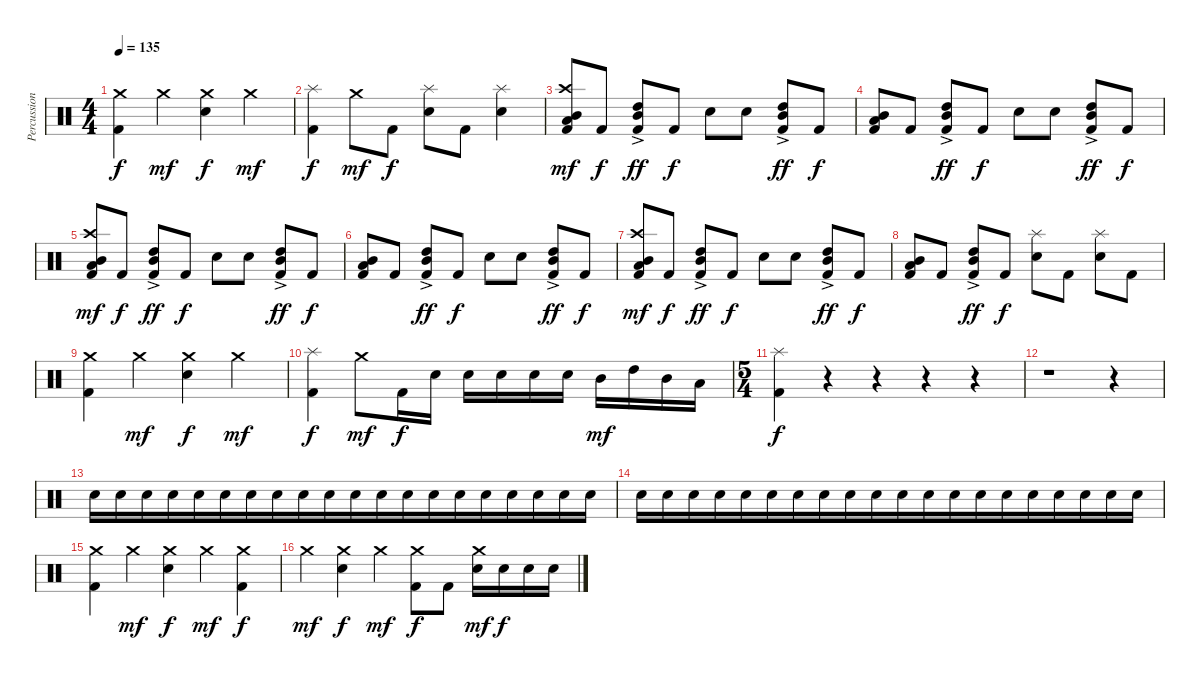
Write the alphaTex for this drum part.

\track ("Percussion" "Percussion") {instrument percussion}
\staff {score}
\articulation defaults
\ts (4 4)
\tempo 135
\clef neutral
\ks c
("Crash medium (hit)" "Kick (hit) 2").4{dy f} "Crash medium (hit)".4{dy mf} ("Crash medium (hit)" "Snare (hit) 2").4{dy f} "Crash medium (hit)".4{dy mf} |
("Splash (hit)" "Kick (hit) 2").4{dy f} "Crash medium (hit)".8{dy mf} "Kick (hit) 2".8{dy f} ("Splash (hit)" "Snare (hit) 2").8 "Kick (hit) 2".8 ("Splash (hit)" "Snare (hit) 2").4 |
("Crash high (hit)" "Mid Tom (hit)" "Low Tom (hit)" "Kick (hit) 2").8{dy mf} "Kick (hit) 2".8{dy f} ("High Tom (hit)"{ac} "Mid Tom (hit)"{ac} "Kick (hit) 2").8{dy ff} "Kick (hit) 2".8{dy f} "Snare (hit) 2".8 "Snare (hit) 2".8 ("High Tom (hit)"{ac} "Mid Tom (hit)"{ac} "Kick (hit) 2").8{dy ff} "Kick (hit) 2".8{dy f} |
("Mid Tom (hit)" "Low Tom (hit)" "Kick (hit) 2").8 "Kick (hit) 2".8 ("High Tom (hit)"{ac} "Mid Tom (hit)"{ac} "Kick (hit) 2").8{dy ff} "Kick (hit) 2".8{dy f} "Snare (hit) 2".8 "Snare (hit) 2".8 ("High Tom (hit)"{ac} "Mid Tom (hit)"{ac} "Kick (hit) 2").8{dy ff} "Kick (hit) 2".8{dy f} |
("Crash high (hit)" "Mid Tom (hit)" "Low Tom (hit)" "Kick (hit) 2").8{dy mf} "Kick (hit) 2".8{dy f} ("High Tom (hit)"{ac} "Mid Tom (hit)"{ac} "Kick (hit) 2").8{dy ff} "Kick (hit) 2".8{dy f} "Snare (hit) 2".8 "Snare (hit) 2".8 ("High Tom (hit)"{ac} "Mid Tom (hit)"{ac} "Kick (hit) 2").8{dy ff} "Kick (hit) 2".8{dy f} |
("Mid Tom (hit)" "Low Tom (hit)" "Kick (hit) 2").8 "Kick (hit) 2".8 ("High Tom (hit)"{ac} "Mid Tom (hit)"{ac} "Kick (hit) 2").8{dy ff} "Kick (hit) 2".8{dy f} "Snare (hit) 2".8 "Snare (hit) 2".8 ("High Tom (hit)"{ac} "Mid Tom (hit)"{ac} "Kick (hit) 2").8{dy ff} "Kick (hit) 2".8{dy f} |
("Crash high (hit)" "Mid Tom (hit)" "Low Tom (hit)" "Kick (hit) 2").8{dy mf} "Kick (hit) 2".8{dy f} ("High Tom (hit)"{ac} "Mid Tom (hit)"{ac} "Kick (hit) 2").8{dy ff} "Kick (hit) 2".8{dy f} "Snare (hit) 2".8 "Snare (hit) 2".8 ("High Tom (hit)"{ac} "Mid Tom (hit)"{ac} "Kick (hit) 2").8{dy ff} "Kick (hit) 2".8{dy f} |
("Mid Tom (hit)" "Low Tom (hit)" "Kick (hit) 2").8 "Kick (hit) 2".8 ("High Tom (hit)"{ac} "Mid Tom (hit)"{ac} "Kick (hit) 2").8{dy ff} "Kick (hit) 2".8{dy f} ("Splash (hit)" "Snare (hit) 2").8 "Kick (hit) 2".8 ("Splash (hit)" "Snare (hit) 2").8 "Kick (hit) 2".8 |
("Crash medium (hit)" "Kick (hit) 2").4 "Crash medium (hit)".4{dy mf} ("Crash medium (hit)" "Snare (hit) 2").4{dy f} "Crash medium (hit)".4{dy mf} |
("Splash (hit)" "Kick (hit) 2").4{dy f} "Crash medium (hit)".8{dy mf} "Kick (hit) 2".16{dy f} "Snare (hit) 2".16 "Snare (hit) 2".16 "Snare (hit) 2".16 "Snare (hit) 2".16 "Snare (hit) 2".16 "Mid Tom (hit)".16{dy mf} "High Tom (hit)".16 "Mid Tom (hit)".16 "Low Tom (hit)".16 |
\ts (5 4)
("Splash (hit)" "Kick (hit) 2").4{dy f} r.4 r.4 r.4 r.4 |
r.1 r.4 |
"Snare (hit) 2".16 "Snare (hit) 2".16{beam merge} "Snare (hit) 2".16{beam merge} "Snare (hit) 2".16{beam merge} "Snare (hit) 2".16{beam merge} "Snare (hit) 2".16{beam merge} "Snare (hit) 2".16{beam merge} "Snare (hit) 2".16{beam merge} "Snare (hit) 2".16{beam merge} "Snare (hit) 2".16{beam merge} "Snare (hit) 2".16{beam merge} "Snare (hit) 2".16{beam merge} "Snare (hit) 2".16{beam merge} "Snare (hit) 2".16{beam merge} "Snare (hit) 2".16{beam merge} "Snare (hit) 2".16{beam merge} "Snare (hit) 2".16{beam merge} "Snare (hit) 2".16{beam merge} "Snare (hit) 2".16{beam merge} "Snare (hit) 2".16 |
"Snare (hit) 2".16{beam merge} "Snare (hit) 2".16{beam merge} "Snare (hit) 2".16{beam merge} "Snare (hit) 2".16{beam merge} "Snare (hit) 2".16{beam merge} "Snare (hit) 2".16{beam merge} "Snare (hit) 2".16{beam merge} "Snare (hit) 2".16{beam merge} "Snare (hit) 2".16{beam merge} "Snare (hit) 2".16{beam merge} "Snare (hit) 2".16{beam merge} "Snare (hit) 2".16{beam merge} "Snare (hit) 2".16{beam merge} "Snare (hit) 2".16{beam merge} "Snare (hit) 2".16{beam merge} "Snare (hit) 2".16{beam merge} "Snare (hit) 2".16{beam merge} "Snare (hit) 2".16{beam merge} "Snare (hit) 2".16{beam merge} "Snare (hit) 2".16 |
("Crash medium (hit)" "Kick (hit) 2").4 "Crash medium (hit)".4{dy mf} ("Crash medium (hit)" "Snare (hit) 2").4{dy f} "Crash medium (hit)".4{dy mf} ("Crash medium (hit)" "Kick (hit) 2").4{dy f} |
"Crash medium (hit)".4{dy mf} ("Crash medium (hit)" "Snare (hit) 2").4{dy f} "Crash medium (hit)".4{dy mf} ("Crash medium (hit)" "Kick (hit) 2").8{dy f} "Kick (hit) 2".8 ("Crash medium (hit)" "Snare (hit) 2").16{dy mf} "Snare (hit) 2".16{dy f} "Snare (hit) 2".16 "Snare (hit) 2".16
